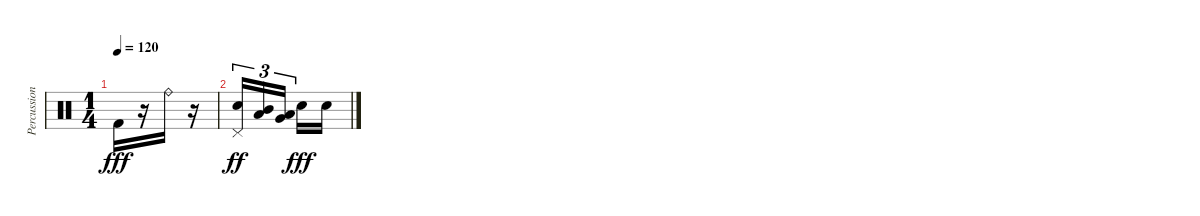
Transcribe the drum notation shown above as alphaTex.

\track ("Percussion" "Percussion") {instrument percussion}
\staff {score}
\articulation defaults
\ts (1 4)
\tempo 120
\clef neutral
\ks c "Kick (hit) 2".16{dy fff}
r.16 "Ride (bell)".16 r.16 |
("Pedal Hi-Hat (hit)" "Electric Snare (hit)").16{tu (3 2) dy ff} ("Low Tom (hit)" "Mid Tom (hit)").16{tu (3 2)} ("Very Low Tom (hit)" "Low Tom (hit)").16{tu (3 2) beam splitsecondary} "Electric Snare (hit)".16{dy fff} "Electric Snare (hit)".16
